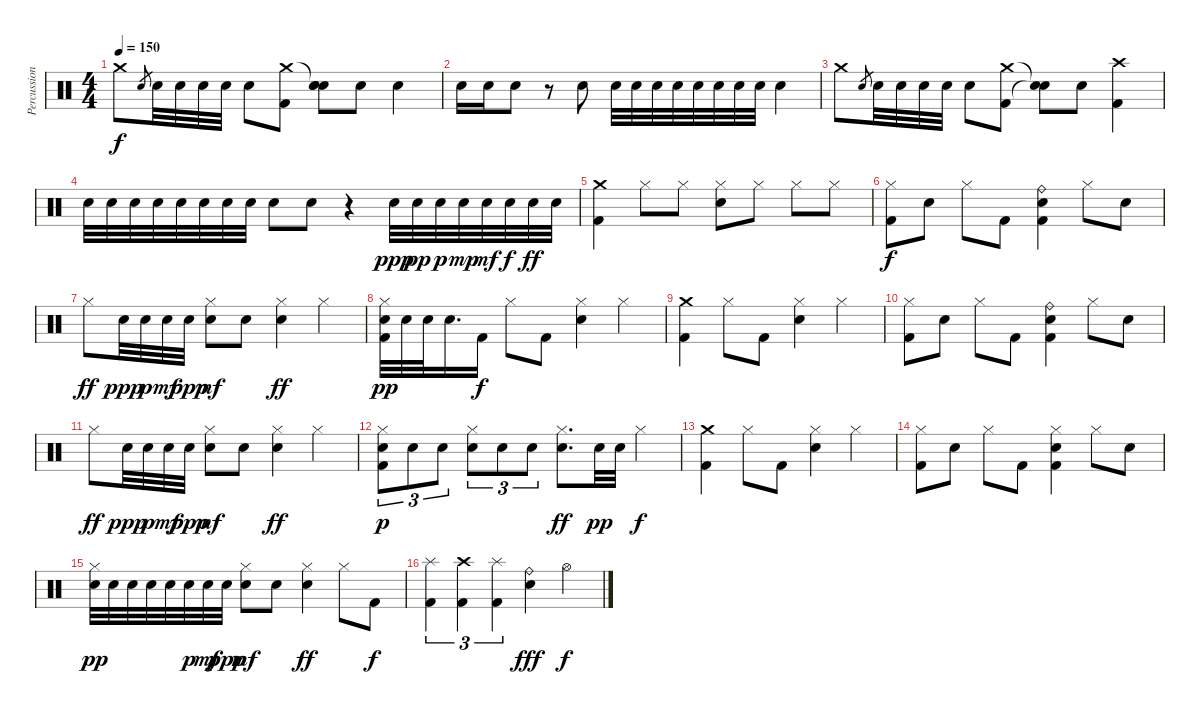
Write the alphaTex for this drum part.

\track ("Percussion" "Percussion") {instrument percussion}
\staff {score}
\articulation defaults
\ts (4 4)
\tempo 150
\clef neutral
\ks c "Crash medium (hit)".8{dy f} "Snare (hit) 2".8{gr} "Snare (hit) 2".32 "Snare (hit) 2".32 "Snare (hit) 2".32 "Snare (hit) 2".32 "Snare (hit) 2".8
("Crash medium (hit)" "Kick (hit) 2").8 ("Snare (hit)"{t} "Snare (hit) 2" "Snare (hit)"{t}).8 "Snare (hit) 2".8 "Snare (hit) 2".4 |
"Snare (hit) 2".16 "Snare (hit) 2".16 "Snare (hit) 2".8 r.8 "Snare (hit) 2".8 "Snare (hit) 2".32 "Snare (hit) 2".32 "Snare (hit) 2".32 "Snare (hit) 2".32 "Snare (hit) 2".32 "Snare (hit) 2".32 "Snare (hit) 2".32 "Snare (hit) 2".32 "Snare (hit) 2".4 |
"Crash medium (hit)".8 "Snare (hit) 2".8{gr} "Snare (hit) 2".32 "Snare (hit) 2".32 "Snare (hit) 2".32 "Snare (hit) 2".32 "Snare (hit) 2".8 ("Crash medium (hit)" "Kick (hit) 2").8 ("Snare (hit)"{t} "Snare (hit)"{t}).8 "Snare (hit) 2".8 ("Crash high (hit)" "Kick (hit) 2").4 |
"Electric Snare (hit)".32 "Electric Snare (hit)".32 "Electric Snare (hit)".32 "Electric Snare (hit)".32 "Electric Snare (hit)".32 "Electric Snare (hit)".32 "Electric Snare (hit)".32 "Electric Snare (hit)".32 "Electric Snare (hit)".8 "Electric Snare (hit)".8 r.4 "Electric Snare (hit)".32{dy ppp} "Electric Snare (hit)".32{dy pp} "Electric Snare (hit)".32{dy p} "Electric Snare (hit)".32{dy mp} "Electric Snare (hit)".32{dy mf} "Electric Snare (hit)".32{dy f} "Electric Snare (hit)".32{dy ff} "Electric Snare (hit)".32 |
("Crash medium (hit)" "Kick (hit) 2").4 "Hi-Hat (closed)".8 "Hi-Hat (closed)".8 ("Hi-Hat (closed)" "Electric Snare (hit)").8 "Hi-Hat (closed)".8 "Hi-Hat (closed)".8 "Hi-Hat (closed)".8 |
("Hi-Hat (closed)" "Kick (hit) 2").8{dy f} "Electric Snare (hit)".8 "Hi-Hat (closed)".8 "Kick (hit) 2".8 ("Ride (bell)" "Electric Snare (hit)" "Kick (hit) 2").4 "Hi-Hat (closed)".8 "Electric Snare (hit)".8 |
"Hi-Hat (closed)".8{dy ff} "Electric Snare (hit)".32{dy ppp} "Electric Snare (hit)".32{dy p} "Electric Snare (hit)".32{dy mf} "Electric Snare (hit)".32{dy ppp} ("Hi-Hat (closed)" "Electric Snare (hit)").8{dy mf} "Electric Snare (hit)".8 ("Hi-Hat (closed)" "Electric Snare (hit)").4{dy ff} "Hi-Hat (closed)".4 |
("Hi-Hat (closed)" "Electric Snare (hit)" "Kick (hit) 2").32{dy pp} "Electric Snare (hit)".32 "Electric Snare (hit)".32 "Electric Snare (hit)".16{d} "Kick (hit) 2".16{dy f} "Hi-Hat (closed)".8 "Kick (hit) 2".8 ("Hi-Hat (closed)" "Electric Snare (hit)").4 "Hi-Hat (closed)".4 |
("Crash medium (hit)" "Kick (hit) 2").4 "Hi-Hat (closed)".8 "Kick (hit) 2".8 ("Hi-Hat (closed)" "Electric Snare (hit)").4 "Hi-Hat (closed)".4 |
("Hi-Hat (closed)" "Kick (hit) 2").8 "Electric Snare (hit)".8 "Hi-Hat (closed)".8 "Kick (hit) 2".8 ("Ride (bell)" "Electric Snare (hit)" "Kick (hit) 2").4 "Hi-Hat (closed)".8 "Electric Snare (hit)".8 |
"Hi-Hat (closed)".8{dy ff} "Electric Snare (hit)".32{dy ppp} "Electric Snare (hit)".32{dy p} "Electric Snare (hit)".32{dy mf} "Electric Snare (hit)".32{dy ppp} ("Hi-Hat (closed)" "Electric Snare (hit)").8{dy mf} "Electric Snare (hit)".8 ("Hi-Hat (closed)" "Electric Snare (hit)").4{dy ff} "Hi-Hat (closed)".4 |
("Hi-Hat (closed)" "Snare (hit) 2" "Kick (hit) 2").8{tu (3 2) dy p} "Snare (hit) 2".8{tu (3 2)} "Snare (hit) 2".8{tu (3 2)} ("Hi-Hat (closed)" "Snare (hit) 2").8{tu (3 2)} "Snare (hit) 2".8{tu (3 2)} "Snare (hit) 2".8{tu (3 2)} ("Hi-Hat (closed)" "Electric Snare (hit)").8{d dy ff} "Electric Snare (hit)".32{dy pp} "Electric Snare (hit)".32 "Hi-Hat (closed)".4{dy f} |
("Crash medium (hit)" "Kick (hit) 2").4 "Hi-Hat (closed)".8 "Kick (hit) 2".8 ("Hi-Hat (closed)" "Electric Snare (hit)").4 "Hi-Hat (closed)".4 |
("Hi-Hat (closed)" "Kick (hit) 2").8 "Electric Snare (hit)".8 "Hi-Hat (closed)".8 "Kick (hit) 2".8 ("Hi-Hat (closed)" "Electric Snare (hit)" "Kick (hit) 2").4 "Hi-Hat (closed)".8 "Electric Snare (hit)".8 |
("Hi-Hat (closed)" "Electric Snare (hit)").32{dy pp} "Electric Snare (hit)".32 "Electric Snare (hit)".32 "Electric Snare (hit)".32 "Electric Snare (hit)".32 "Electric Snare (hit)".32{dy p} "Electric Snare (hit)".32{dy mf} "Electric Snare (hit)".32{dy ppp} ("Hi-Hat (closed)" "Electric Snare (hit)").8{dy mf} "Electric Snare (hit)".8 ("Hi-Hat (closed)" "Electric Snare (hit)").4{dy ff} "Hi-Hat (closed)".8 "Kick (hit) 2".8{dy f} |
("Splash (hit)" "Kick (hit) 2").4{tu (3 2)} ("Crash high (hit)" "Kick (hit) 2").4{tu (3 2)} ("Splash (hit)" "Kick (hit) 2").4{tu (3 2)} ("Ride (bell)" "Electric Snare (hit)").4{dy fff} "Hi-Hat (open)".4{dy f}
